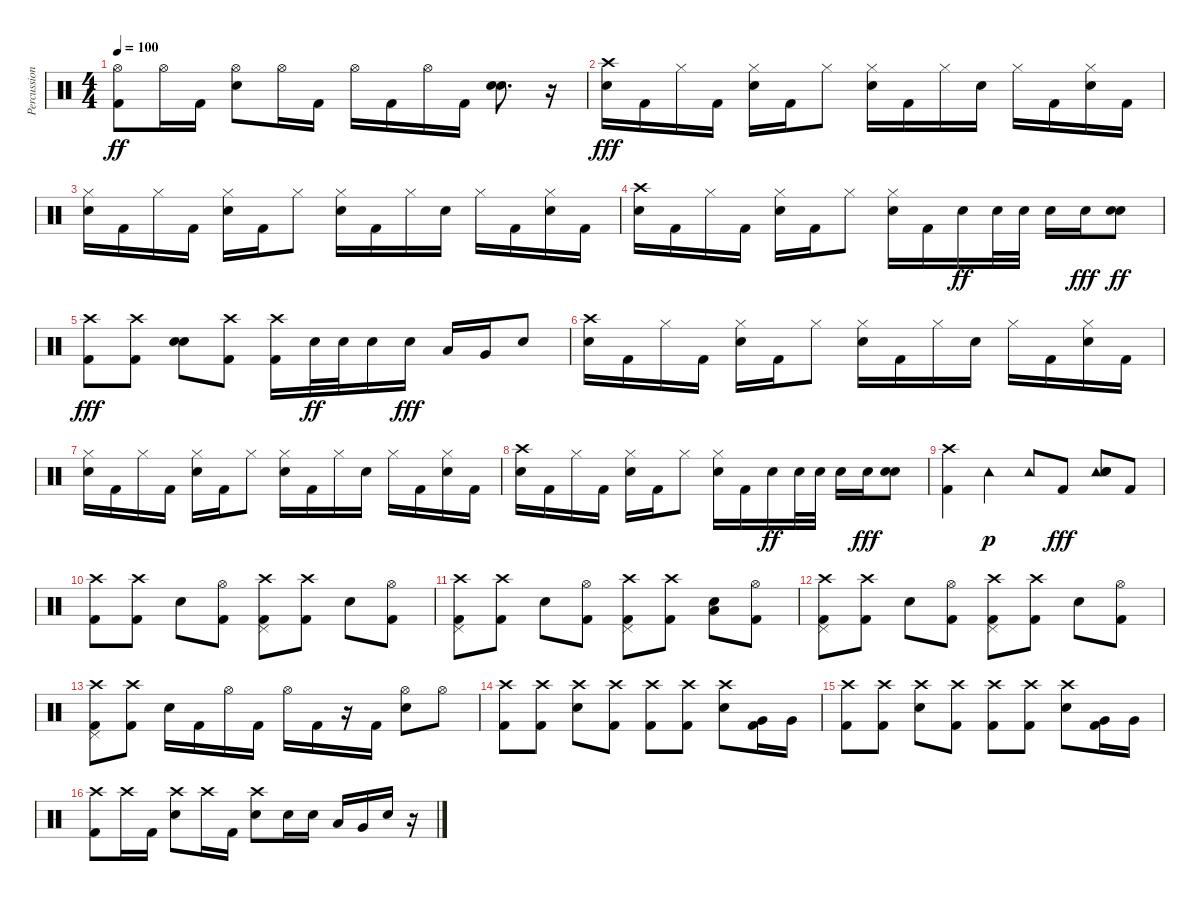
\track ("Percussion" "Percussion") {instrument percussion}
\staff {score}
\articulation defaults
\ts (4 4)
\tempo 100
\clef neutral
\ks c
("Hi-Hat (open)" "Kick (hit) 2").8{dy ff} "Hi-Hat (open)".16 "Kick (hit) 2".16 ("Hi-Hat (open)" "Electric Snare (hit)").8 "Hi-Hat (open)".16 "Kick (hit) 2".16 "Hi-Hat (open)".16 "Kick (hit) 2".16 "Hi-Hat (open)".16 "Kick (hit) 2".16 ("Electric Snare (hit)" "Electric Snare (hit)").8{d} r.16 |
("Crash high (hit)" "Electric Snare (hit)").16{dy fff} "Kick (hit) 2".16 "Hi-Hat (closed)".16 "Kick (hit) 2".16 ("Hi-Hat (closed)" "Electric Snare (hit)").16 "Kick (hit) 2".16 "Hi-Hat (closed)".8 ("Hi-Hat (closed)" "Electric Snare (hit)").16 "Kick (hit) 2".16 "Hi-Hat (closed)".16 "Electric Snare (hit)".16 "Hi-Hat (closed)".16 "Kick (hit) 2".16 ("Hi-Hat (closed)" "Electric Snare (hit)").16 "Kick (hit) 2".16 |
("Hi-Hat (closed)" "Electric Snare (hit)").16 "Kick (hit) 2".16 "Hi-Hat (closed)".16 "Kick (hit) 2".16 ("Hi-Hat (closed)" "Electric Snare (hit)").16 "Kick (hit) 2".16 "Hi-Hat (closed)".8 ("Hi-Hat (closed)" "Electric Snare (hit)").16 "Kick (hit) 2".16 "Hi-Hat (closed)".16 "Electric Snare (hit)".16 "Hi-Hat (closed)".16 "Kick (hit) 2".16 ("Hi-Hat (closed)" "Electric Snare (hit)").16 "Kick (hit) 2".16 |
("Crash high (hit)" "Electric Snare (hit)").16 "Kick (hit) 2".16 "Hi-Hat (closed)".16 "Kick (hit) 2".16 ("Hi-Hat (closed)" "Electric Snare (hit)").16 "Kick (hit) 2".16 "Hi-Hat (closed)".8 ("Hi-Hat (closed)" "Electric Snare (hit)").16 "Kick (hit) 2".16 "Electric Snare (hit)".16{dy ff} "Electric Snare (hit)".32 "Electric Snare (hit)".32 "Electric Snare (hit)".16 "Electric Snare (hit)".16{dy fff} ("Electric Snare (hit)" "Electric Snare (hit)").8{dy ff} |
("Crash high (hit)" "Kick (hit) 2").8{dy fff} ("Crash high (hit)" "Kick (hit) 2").8 ("Electric Snare (hit)" "Electric Snare (hit)").8 ("Crash high (hit)" "Kick (hit) 2").8 ("Crash high (hit)" "Kick (hit) 2").16 "Electric Snare (hit)".32{dy ff} "Electric Snare (hit)".32 "Electric Snare (hit)".16 "Electric Snare (hit)".16{dy fff} "Low Tom (hit)".16 "Very Low Tom (hit)".16 "Electric Snare (hit)".8 |
("Crash high (hit)" "Electric Snare (hit)").16 "Kick (hit) 2".16 "Hi-Hat (closed)".16 "Kick (hit) 2".16 ("Hi-Hat (closed)" "Electric Snare (hit)").16 "Kick (hit) 2".16 "Hi-Hat (closed)".8 ("Hi-Hat (closed)" "Electric Snare (hit)").16 "Kick (hit) 2".16 "Hi-Hat (closed)".16 "Electric Snare (hit)".16 "Hi-Hat (closed)".16 "Kick (hit) 2".16 ("Hi-Hat (closed)" "Electric Snare (hit)").16 "Kick (hit) 2".16 |
("Hi-Hat (closed)" "Electric Snare (hit)").16 "Kick (hit) 2".16 "Hi-Hat (closed)".16 "Kick (hit) 2".16 ("Hi-Hat (closed)" "Electric Snare (hit)").16 "Kick (hit) 2".16 "Hi-Hat (closed)".8 ("Hi-Hat (closed)" "Electric Snare (hit)").16 "Kick (hit) 2".16 "Hi-Hat (closed)".16 "Electric Snare (hit)".16 "Hi-Hat (closed)".16 "Kick (hit) 2".16 ("Hi-Hat (closed)" "Electric Snare (hit)").16 "Kick (hit) 2".16 |
("Crash high (hit)" "Electric Snare (hit)").16 "Kick (hit) 2".16 "Hi-Hat (closed)".16 "Kick (hit) 2".16 ("Hi-Hat (closed)" "Electric Snare (hit)").16 "Kick (hit) 2".16 "Hi-Hat (closed)".8 ("Hi-Hat (closed)" "Electric Snare (hit)").16 "Kick (hit) 2".16 "Electric Snare (hit)".16{dy ff} "Electric Snare (hit)".32 "Electric Snare (hit)".32 "Electric Snare (hit)".16 "Electric Snare (hit)".16{dy fff} ("Electric Snare (hit)" "Electric Snare (hit)").8 |
("Crash high (hit)" "Kick (hit) 2").4 "Tambourine (hit)".4{dy p} "Tambourine (hit)".8 "Kick (hit) 2".8{dy fff} ("Tambourine (hit)" "Electric Snare (hit)" "Electric Snare (hit)").8 "Kick (hit) 2".8 |
("Crash high (hit)" "Kick (hit) 2").8 ("Crash high (hit)" "Kick (hit) 2").8 "Electric Snare (hit)".8 ("Hi-Hat (open)" "Kick (hit) 2").8 ("Crash high (hit)" "Pedal Hi-Hat (hit)" "Kick (hit) 2").8 ("Crash high (hit)" "Kick (hit) 2").8 "Electric Snare (hit)".8 ("Hi-Hat (open)" "Kick (hit) 2").8 |
("Crash high (hit)" "Pedal Hi-Hat (hit)" "Kick (hit) 2").8 ("Crash high (hit)" "Kick (hit) 2").8 "Electric Snare (hit)".8 ("Hi-Hat (open)" "Kick (hit) 2").8 ("Crash high (hit)" "Pedal Hi-Hat (hit)" "Kick (hit) 2").8 ("Crash high (hit)" "Kick (hit) 2").8 ("Low Tom (hit)" "Electric Snare (hit)").8 ("Hi-Hat (open)" "Kick (hit) 2").8 |
("Crash high (hit)" "Pedal Hi-Hat (hit)" "Kick (hit) 2").8 ("Crash high (hit)" "Kick (hit) 2").8 "Electric Snare (hit)".8 ("Hi-Hat (open)" "Kick (hit) 2").8 ("Crash high (hit)" "Pedal Hi-Hat (hit)" "Kick (hit) 2").8 ("Crash high (hit)" "Kick (hit) 2").8 "Electric Snare (hit)".8 ("Hi-Hat (open)" "Kick (hit) 2").8 |
("Crash high (hit)" "Pedal Hi-Hat (hit)" "Kick (hit) 2").8 ("Crash high (hit)" "Kick (hit) 2").8 "Electric Snare (hit)".16 "Kick (hit) 2".16 "Hi-Hat (open)".16 "Kick (hit) 2".16 "Hi-Hat (open)".16 "Kick (hit) 2".16 r.16 "Kick (hit) 2".16 ("Hi-Hat (open)" "Electric Snare (hit)").8 "Hi-Hat (open)".8 |
("Crash high (hit)" "Kick (hit) 2").8 ("Crash high (hit)" "Kick (hit) 2").8 ("Crash high (hit)" "Electric Snare (hit)").8 ("Crash high (hit)" "Kick (hit) 2").8 ("Crash high (hit)" "Kick (hit) 2").8 ("Crash high (hit)" "Kick (hit) 2").8 ("Crash high (hit)" "Electric Snare (hit)").8 ("Very Low Tom (hit)" "Kick (hit) 2").16 "Very Low Tom (hit)".16 |
("Crash high (hit)" "Kick (hit) 2").8 ("Crash high (hit)" "Kick (hit) 2").8 ("Crash high (hit)" "Electric Snare (hit)").8 ("Crash high (hit)" "Kick (hit) 2").8 ("Crash high (hit)" "Kick (hit) 2").8 ("Crash high (hit)" "Kick (hit) 2").8 ("Crash high (hit)" "Electric Snare (hit)").8 ("Very Low Tom (hit)" "Kick (hit) 2").16 "Very Low Tom (hit)".16 |
("Crash high (hit)" "Kick (hit) 2").8 "Crash high (hit)".16 "Kick (hit) 2".16 ("Crash high (hit)" "Electric Snare (hit)").8 "Crash high (hit)".16 "Kick (hit) 2".16 ("Crash high (hit)" "Electric Snare (hit)").8 "Electric Snare (hit)".16 "Electric Snare (hit)".16 "Low Tom (hit)".16 "Very Low Tom (hit)".16 "Electric Snare (hit)".16 r.16
